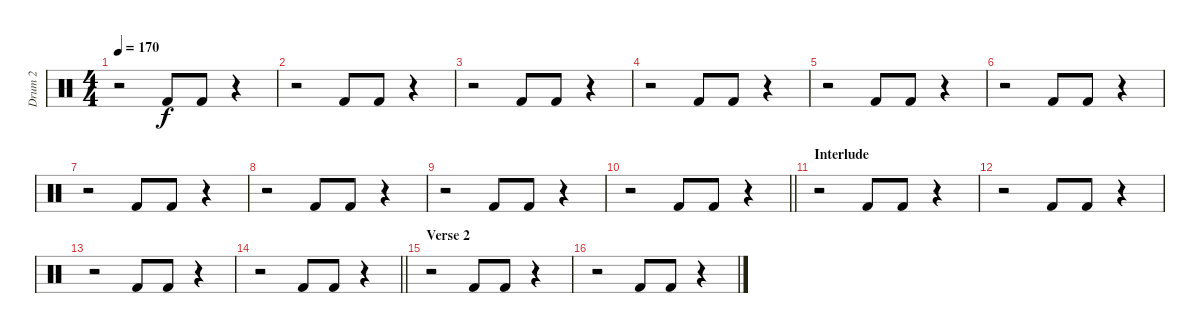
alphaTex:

\track ("Drum 2" "Drum 2") {instrument percussion}
\staff {score}
\articulation defaults
\ts (4 4)
\tempo 170
\clef neutral
\ks c
r.2{dy f} "Kick (hit) 2".8 "Kick (hit) 2".8 r.4 |
r.2 "Kick (hit) 2".8 "Kick (hit) 2".8 r.4 |
r.2 "Kick (hit) 2".8 "Kick (hit) 2".8 r.4 |
r.2 "Kick (hit) 2".8 "Kick (hit) 2".8 r.4 |
r.2 "Kick (hit) 2".8 "Kick (hit) 2".8 r.4 |
r.2 "Kick (hit) 2".8 "Kick (hit) 2".8 r.4 |
r.2 "Kick (hit) 2".8 "Kick (hit) 2".8 r.4 |
r.2 "Kick (hit) 2".8 "Kick (hit) 2".8 r.4 |
r.2 "Kick (hit) 2".8 "Kick (hit) 2".8 r.4 |
\barLineRight lightlight
r.2 "Kick (hit) 2".8 "Kick (hit) 2".8 r.4 |
\section ("" "Interlude")
r.2 "Kick (hit) 2".8 "Kick (hit) 2".8 r.4 |
r.2 "Kick (hit) 2".8 "Kick (hit) 2".8 r.4 |
r.2 "Kick (hit) 2".8 "Kick (hit) 2".8 r.4 |
\barLineRight lightlight
r.2 "Kick (hit) 2".8 "Kick (hit) 2".8 r.4 |
\section ("" "Verse 2")
r.2 "Kick (hit) 2".8 "Kick (hit) 2".8 r.4 |
r.2 "Kick (hit) 2".8 "Kick (hit) 2".8 r.4
